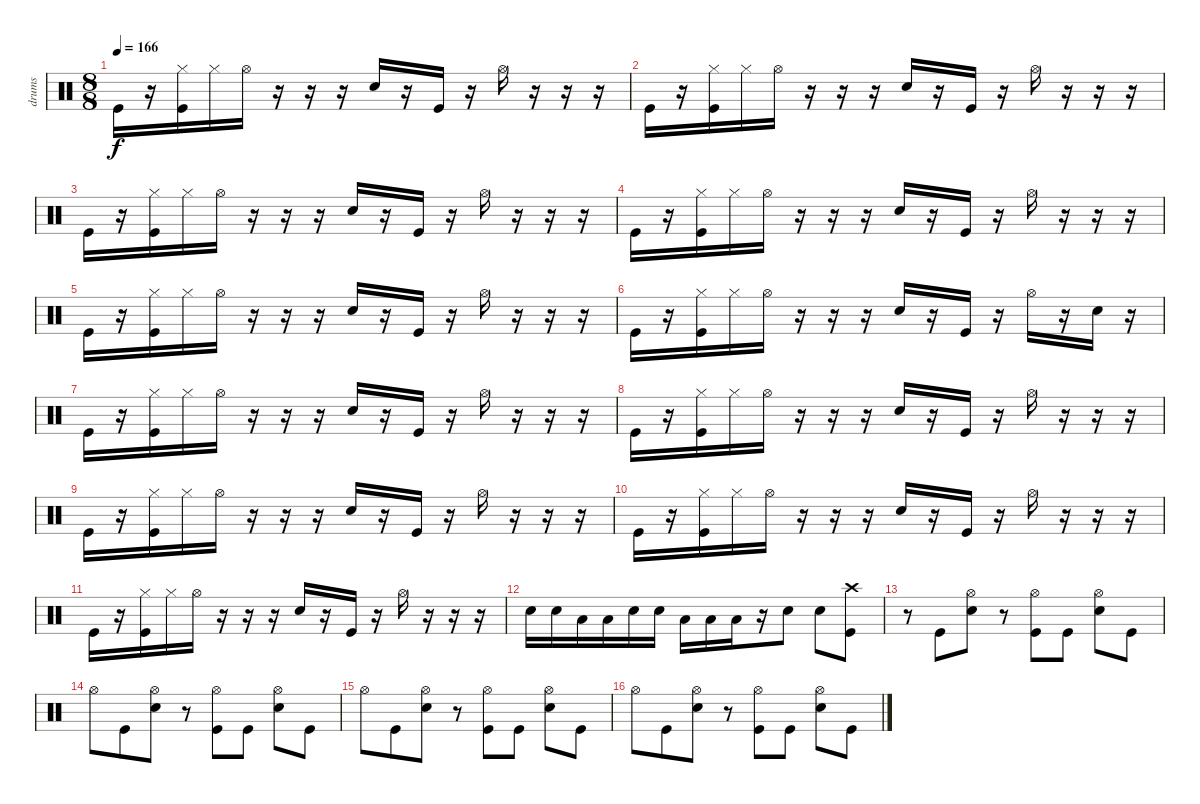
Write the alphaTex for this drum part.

\track ("drums" "drums") {instrument percussion}
\staff {score}
\articulation defaults
\ts (8 8)
\tempo 166
\clef neutral
\ks c "Kick (hit)".16{dy f}
r.16 ("Hi-Hat (closed)" "Kick (hit)").16 "Hi-Hat (closed)".16 "Hi-Hat (open)".16 r.16 r.16 r.16 "Snare (hit) 2".16 r.16 "Kick (hit)".16 r.16 "Hi-Hat (open)".16 r.16 r.16 r.16 |
"Kick (hit)".16 r.16 ("Hi-Hat (closed)" "Kick (hit)").16 "Hi-Hat (closed)".16 "Hi-Hat (open)".16 r.16 r.16 r.16 "Snare (hit) 2".16 r.16 "Kick (hit)".16 r.16 "Hi-Hat (open)".16 r.16 r.16 r.16 |
"Kick (hit)".16 r.16 ("Hi-Hat (closed)" "Kick (hit)").16 "Hi-Hat (closed)".16 "Hi-Hat (open)".16 r.16 r.16 r.16 "Snare (hit) 2".16 r.16 "Kick (hit)".16 r.16 "Hi-Hat (open)".16 r.16 r.16 r.16 |
"Kick (hit)".16 r.16 ("Hi-Hat (closed)" "Kick (hit)").16 "Hi-Hat (closed)".16 "Hi-Hat (open)".16 r.16 r.16 r.16 "Snare (hit) 2".16 r.16 "Kick (hit)".16 r.16 "Hi-Hat (open)".16 r.16 r.16 r.16 |
"Kick (hit)".16 r.16 ("Hi-Hat (closed)" "Kick (hit)").16 "Hi-Hat (closed)".16 "Hi-Hat (open)".16 r.16 r.16 r.16 "Snare (hit) 2".16 r.16 "Kick (hit)".16 r.16 "Hi-Hat (open)".16 r.16 r.16 r.16 |
"Kick (hit)".16 r.16 ("Hi-Hat (closed)" "Kick (hit)").16 "Hi-Hat (closed)".16 "Hi-Hat (open)".16 r.16 r.16 r.16 "Snare (hit) 2".16 r.16 "Kick (hit)".16 r.16 "Hi-Hat (open)".16 r.16 "Snare (hit) 2".16 r.16 |
"Kick (hit)".16 r.16 ("Hi-Hat (closed)" "Kick (hit)").16 "Hi-Hat (closed)".16 "Hi-Hat (open)".16 r.16 r.16 r.16 "Snare (hit) 2".16 r.16 "Kick (hit)".16 r.16 "Hi-Hat (open)".16 r.16 r.16 r.16 |
"Kick (hit)".16 r.16 ("Hi-Hat (closed)" "Kick (hit)").16 "Hi-Hat (closed)".16 "Hi-Hat (open)".16 r.16 r.16 r.16 "Snare (hit) 2".16 r.16 "Kick (hit)".16 r.16 "Hi-Hat (open)".16 r.16 r.16 r.16 |
"Kick (hit)".16 r.16 ("Hi-Hat (closed)" "Kick (hit)").16 "Hi-Hat (closed)".16 "Hi-Hat (open)".16 r.16 r.16 r.16 "Snare (hit) 2".16 r.16 "Kick (hit)".16 r.16 "Hi-Hat (open)".16 r.16 r.16 r.16 |
"Kick (hit)".16 r.16 ("Hi-Hat (closed)" "Kick (hit)").16 "Hi-Hat (closed)".16 "Hi-Hat (open)".16 r.16 r.16 r.16 "Snare (hit) 2".16 r.16 "Kick (hit)".16 r.16 "Hi-Hat (open)".16 r.16 r.16 r.16 |
"Kick (hit)".16 r.16 ("Hi-Hat (closed)" "Kick (hit)").16 "Hi-Hat (closed)".16 "Hi-Hat (open)".16 r.16 r.16 r.16 "Snare (hit) 2".16 r.16 "Kick (hit)".16 r.16 "Hi-Hat (open)".16 r.16 r.16 r.16 |
"Snare (hit) 2".16 "Snare (hit) 2".16 "Low Tom (hit)".16 "Low Tom (hit)".16 "Snare (hit) 2".16 "Snare (hit) 2".16 "Low Tom (hit)".16 "Low Tom (hit)".16 "Low Tom (hit)".16 r.16 "Snare (hit) 2".8 "Snare (hit) 2".8 ("Crash high (hit)" "Kick (hit)").8 |
r.8 "Kick (hit)".8 ("Hi-Hat (open)" "Snare (hit) 2").8 r.8 ("Hi-Hat (open)" "Kick (hit)").8 "Kick (hit)".8 ("Hi-Hat (open)" "Snare (hit) 2").8 "Kick (hit)".8 |
"Hi-Hat (open)".8 "Kick (hit)".8 ("Hi-Hat (open)" "Snare (hit) 2").8 r.8 ("Hi-Hat (open)" "Kick (hit)").8 "Kick (hit)".8 ("Hi-Hat (open)" "Snare (hit) 2").8 "Kick (hit)".8 |
"Hi-Hat (open)".8 "Kick (hit)".8 ("Hi-Hat (open)" "Snare (hit) 2").8 r.8 ("Hi-Hat (open)" "Kick (hit)").8 "Kick (hit)".8 ("Hi-Hat (open)" "Snare (hit) 2").8 "Kick (hit)".8 |
"Hi-Hat (open)".8 "Kick (hit)".8 ("Hi-Hat (open)" "Snare (hit) 2").8 r.8 ("Hi-Hat (open)" "Kick (hit)").8 "Kick (hit)".8 ("Hi-Hat (open)" "Snare (hit) 2").8 "Kick (hit)".8
